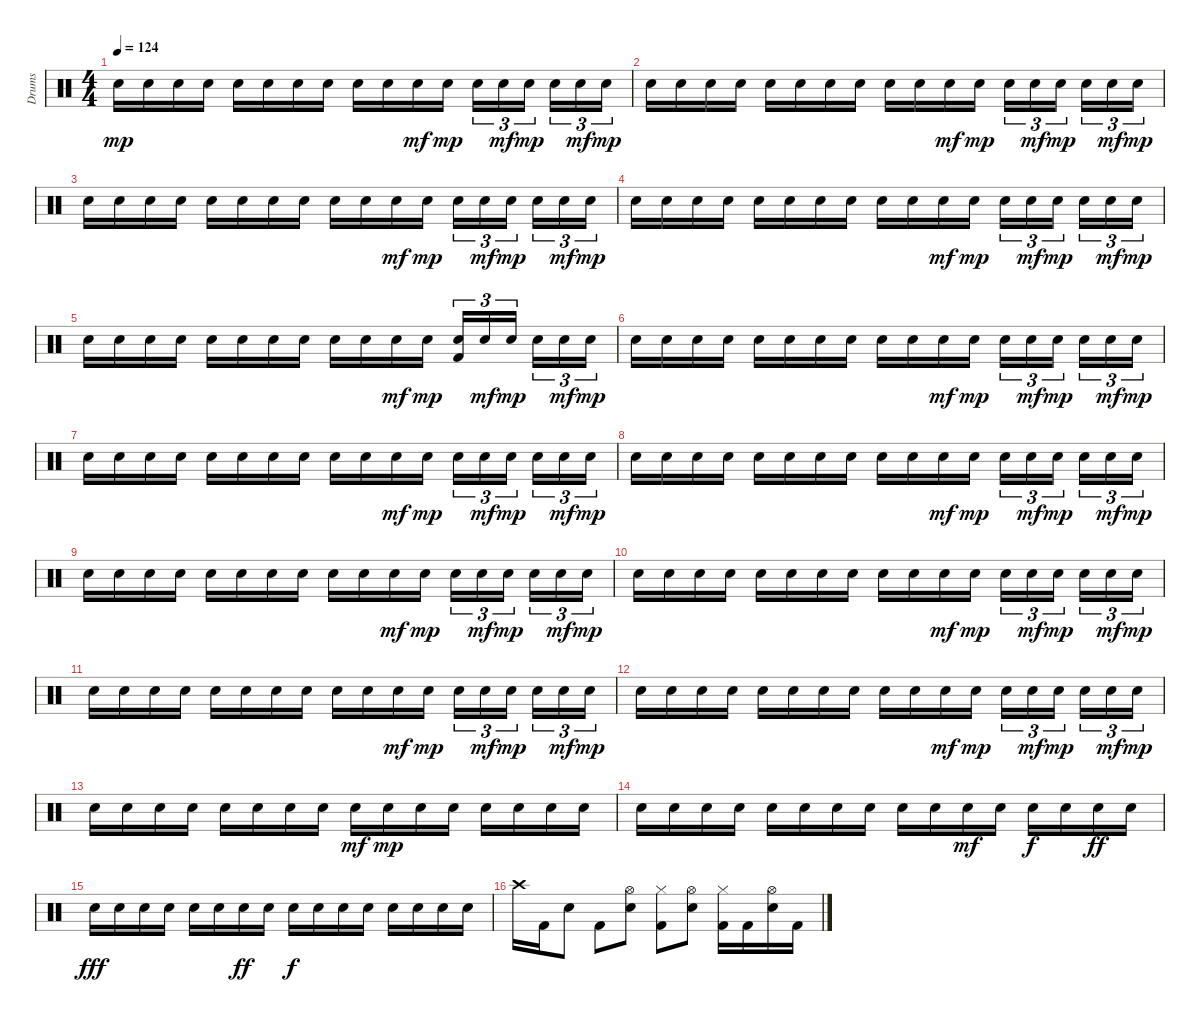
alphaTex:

\track ("Drums" "Drums") {instrument percussion}
\staff {score}
\articulation defaults
\ts (4 4)
\tempo 124
\clef neutral
\ks c "Snare (hit) 2".16{dy mp volume 7} "Snare (hit) 2".16 "Snare (hit) 2".16 "Snare (hit) 2".16 "Electric Snare (hit)".16 "Snare (hit) 2".16 "Snare (hit) 2".16 "Electric Snare (hit)".16 "Snare (hit) 2".16 "Snare (hit) 2".16 "Snare (hit) 2".16{dy mf} "Snare (hit) 2".16{dy mp} "Snare (hit) 2".16{tu (3 2)} "Snare (hit) 2".16{tu (3 2) dy mf} "Snare (hit) 2".16{tu (3 2) dy mp} "Snare (hit) 2".16{tu (3 2)} "Snare (hit) 2".16{tu (3 2) dy mf} "Snare (hit) 2".16{tu (3 2) dy mp}
|
"Snare (hit) 2".16{volume 7} "Snare (hit) 2".16 "Snare (hit) 2".16 "Snare (hit) 2".16 "Electric Snare (hit)".16 "Snare (hit) 2".16 "Snare (hit) 2".16 "Electric Snare (hit)".16 "Snare (hit) 2".16 "Snare (hit) 2".16 "Snare (hit) 2".16{dy mf} "Snare (hit) 2".16{dy mp} "Snare (hit) 2".16{tu (3 2)} "Snare (hit) 2".16{tu (3 2) dy mf} "Snare (hit) 2".16{tu (3 2) dy mp} "Snare (hit) 2".16{tu (3 2)} "Snare (hit) 2".16{tu (3 2) dy mf} "Snare (hit) 2".16{tu (3 2) dy mp} |
"Snare (hit) 2".16{volume 7} "Snare (hit) 2".16 "Snare (hit) 2".16 "Snare (hit) 2".16 "Electric Snare (hit)".16 "Snare (hit) 2".16 "Snare (hit) 2".16 "Electric Snare (hit)".16 "Snare (hit) 2".16 "Snare (hit) 2".16 "Snare (hit) 2".16{dy mf} "Snare (hit) 2".16{dy mp} "Snare (hit) 2".16{tu (3 2)} "Snare (hit) 2".16{tu (3 2) dy mf} "Snare (hit) 2".16{tu (3 2) dy mp} "Snare (hit) 2".16{tu (3 2)} "Snare (hit) 2".16{tu (3 2) dy mf} "Snare (hit) 2".16{tu (3 2) dy mp} |
"Snare (hit) 2".16{volume 7} "Snare (hit) 2".16 "Snare (hit) 2".16 "Snare (hit) 2".16 "Electric Snare (hit)".16 "Snare (hit) 2".16 "Snare (hit) 2".16 "Electric Snare (hit)".16 "Snare (hit) 2".16 "Snare (hit) 2".16 "Snare (hit) 2".16{dy mf} "Snare (hit) 2".16{dy mp} "Snare (hit) 2".16{tu (3 2)} "Snare (hit) 2".16{tu (3 2) dy mf} "Snare (hit) 2".16{tu (3 2) dy mp} "Snare (hit) 2".16{tu (3 2)} "Snare (hit) 2".16{tu (3 2) dy mf} "Snare (hit) 2".16{tu (3 2) dy mp} |
"Snare (hit) 2".16 "Snare (hit) 2".16 "Snare (hit) 2".16 "Snare (hit) 2".16 "Electric Snare (hit)".16 "Snare (hit) 2".16 "Snare (hit) 2".16 "Electric Snare (hit)".16 "Snare (hit) 2".16 "Snare (hit) 2".16 "Snare (hit) 2".16{dy mf} "Snare (hit) 2".16{dy mp} ("Snare (hit) 2" "Kick (hit) 2").16{tu (3 2)} "Snare (hit) 2".16{tu (3 2) dy mf} "Snare (hit) 2".16{tu (3 2) dy mp} "Snare (hit) 2".16{tu (3 2)} "Snare (hit) 2".16{tu (3 2) dy mf} "Snare (hit) 2".16{tu (3 2) dy mp} |
"Snare (hit) 2".16{volume 13} "Snare (hit) 2".16 "Snare (hit) 2".16 "Snare (hit) 2".16 "Electric Snare (hit)".16 "Snare (hit) 2".16 "Snare (hit) 2".16 "Electric Snare (hit)".16 "Snare (hit) 2".16 "Snare (hit) 2".16 "Snare (hit) 2".16{dy mf} "Snare (hit) 2".16{dy mp} "Snare (hit) 2".16{tu (3 2)} "Snare (hit) 2".16{tu (3 2) dy mf} "Snare (hit) 2".16{tu (3 2) dy mp} "Snare (hit) 2".16{tu (3 2)} "Snare (hit) 2".16{tu (3 2) dy mf} "Snare (hit) 2".16{tu (3 2) dy mp} |
"Snare (hit) 2".16 "Snare (hit) 2".16 "Snare (hit) 2".16 "Snare (hit) 2".16 "Electric Snare (hit)".16 "Snare (hit) 2".16 "Snare (hit) 2".16 "Electric Snare (hit)".16 "Snare (hit) 2".16 "Snare (hit) 2".16 "Snare (hit) 2".16{dy mf} "Snare (hit) 2".16{dy mp} "Snare (hit) 2".16{tu (3 2)} "Snare (hit) 2".16{tu (3 2) dy mf} "Snare (hit) 2".16{tu (3 2) dy mp} "Snare (hit) 2".16{tu (3 2)} "Snare (hit) 2".16{tu (3 2) dy mf} "Snare (hit) 2".16{tu (3 2) dy mp} |
"Snare (hit) 2".16 "Snare (hit) 2".16 "Snare (hit) 2".16 "Snare (hit) 2".16 "Electric Snare (hit)".16 "Snare (hit) 2".16 "Snare (hit) 2".16 "Electric Snare (hit)".16 "Snare (hit) 2".16 "Snare (hit) 2".16 "Snare (hit) 2".16{dy mf} "Snare (hit) 2".16{dy mp} "Snare (hit) 2".16{tu (3 2)} "Snare (hit) 2".16{tu (3 2) dy mf} "Snare (hit) 2".16{tu (3 2) dy mp} "Snare (hit) 2".16{tu (3 2)} "Snare (hit) 2".16{tu (3 2) dy mf} "Snare (hit) 2".16{tu (3 2) dy mp} |
"Snare (hit) 2".16 "Snare (hit) 2".16 "Snare (hit) 2".16 "Snare (hit) 2".16 "Electric Snare (hit)".16 "Snare (hit) 2".16 "Snare (hit) 2".16 "Electric Snare (hit)".16 "Snare (hit) 2".16 "Snare (hit) 2".16 "Snare (hit) 2".16{dy mf} "Snare (hit) 2".16{dy mp} "Snare (hit) 2".16{tu (3 2)} "Snare (hit) 2".16{tu (3 2) dy mf} "Snare (hit) 2".16{tu (3 2) dy mp} "Snare (hit) 2".16{tu (3 2)} "Snare (hit) 2".16{tu (3 2) dy mf} "Snare (hit) 2".16{tu (3 2) dy mp} |
"Snare (hit) 2".16 "Snare (hit) 2".16 "Snare (hit) 2".16 "Snare (hit) 2".16 "Electric Snare (hit)".16 "Snare (hit) 2".16 "Snare (hit) 2".16 "Electric Snare (hit)".16 "Snare (hit) 2".16 "Snare (hit) 2".16 "Snare (hit) 2".16{dy mf} "Snare (hit) 2".16{dy mp} "Snare (hit) 2".16{tu (3 2)} "Snare (hit) 2".16{tu (3 2) dy mf} "Snare (hit) 2".16{tu (3 2) dy mp} "Snare (hit) 2".16{tu (3 2)} "Snare (hit) 2".16{tu (3 2) dy mf} "Snare (hit) 2".16{tu (3 2) dy mp} |
"Snare (hit) 2".16 "Snare (hit) 2".16 "Snare (hit) 2".16 "Snare (hit) 2".16 "Electric Snare (hit)".16 "Snare (hit) 2".16 "Snare (hit) 2".16 "Electric Snare (hit)".16 "Snare (hit) 2".16 "Snare (hit) 2".16 "Snare (hit) 2".16{dy mf} "Snare (hit) 2".16{dy mp} "Snare (hit) 2".16{tu (3 2)} "Snare (hit) 2".16{tu (3 2) dy mf} "Snare (hit) 2".16{tu (3 2) dy mp} "Snare (hit) 2".16{tu (3 2)} "Snare (hit) 2".16{tu (3 2) dy mf} "Snare (hit) 2".16{tu (3 2) dy mp} |
"Snare (hit) 2".16 "Snare (hit) 2".16 "Snare (hit) 2".16 "Snare (hit) 2".16 "Electric Snare (hit)".16 "Snare (hit) 2".16 "Snare (hit) 2".16 "Electric Snare (hit)".16 "Snare (hit) 2".16 "Snare (hit) 2".16 "Snare (hit) 2".16{dy mf} "Snare (hit) 2".16{dy mp} "Snare (hit) 2".16{tu (3 2)} "Snare (hit) 2".16{tu (3 2) dy mf} "Snare (hit) 2".16{tu (3 2) dy mp} "Snare (hit) 2".16{tu (3 2)} "Snare (hit) 2".16{tu (3 2) dy mf} "Snare (hit) 2".16{tu (3 2) dy mp} |
"Snare (hit) 2".16 "Snare (hit) 2".16 "Snare (hit) 2".16 "Snare (hit) 2".16 "Snare (hit) 2".16 "Snare (hit) 2".16 "Snare (hit) 2".16 "Snare (hit) 2".16 "Snare (hit) 2".16{dy mf} "Snare (hit) 2".16{dy mp} "Snare (hit) 2".16 "Snare (hit) 2".16 "Snare (hit) 2".16 "Snare (hit) 2".16 "Snare (hit) 2".16 "Snare (hit) 2".16 |
"Snare (hit) 2".16 "Snare (hit) 2".16 "Snare (hit) 2".16 "Snare (hit) 2".16 "Snare (hit) 2".16 "Snare (hit) 2".16 "Snare (hit) 2".16 "Snare (hit) 2".16 "Snare (hit) 2".16 "Snare (hit) 2".16 "Snare (hit) 2".16{dy mf} "Snare (hit) 2".16 "Snare (hit) 2".16{dy f} "Snare (hit) 2".16 "Snare (hit) 2".16{dy ff} "Snare (hit) 2".16 |
"Snare (hit) 2".16{dy fff} "Snare (hit) 2".16 "Snare (hit) 2".16 "Snare (hit) 2".16 "Snare (hit) 2".16 "Snare (hit) 2".16 "Snare (hit) 2".16{dy ff} "Snare (hit) 2".16 "Snare (hit) 2".16{dy f volume 13} "Snare (hit) 2".16 "Snare (hit) 2".16 "Snare (hit) 2".16 "Snare (hit) 2".16 "Snare (hit) 2".16 "Snare (hit) 2".16 "Snare (hit) 2".16 |
"Crash high (hit)".16 "Kick (hit) 2".16 "Electric Snare (hit)".8 "Kick (hit) 2".8 ("Hi-Hat (open)" "Electric Snare (hit)").8 ("Hi-Hat (closed)" "Kick (hit) 2").8 ("Hi-Hat (open)" "Electric Snare (hit)").8 ("Hi-Hat (closed)" "Kick (hit) 2").16 "Kick (hit) 2".16 ("Hi-Hat (open)" "Electric Snare (hit)").16 "Kick (hit) 2".16
